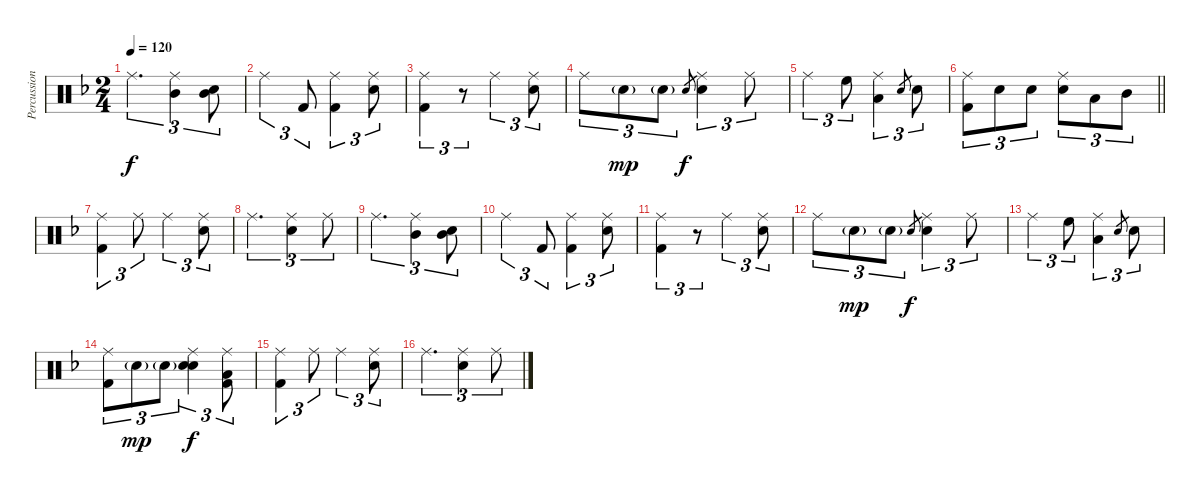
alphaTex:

\track ("Percussion" "Percussion") {instrument percussion}
\staff {score}
\articulation defaults
\ts (2 4)
\tempo 120
\clef neutral
\ks dminor "Ride (middle)".4{d tu (3 2) dy f}
("Ride (middle)" "Mid Tom (hit)").4{tu (3 2)} ("Mid Tom (hit)" "Snare (hit) 2").8{tu (3 2)} |
"Ride (middle)".4{tu (3 2)} "Kick (hit) 2".8{tu (3 2)} ("Ride (middle)" "Kick (hit) 2").4{tu (3 2)} ("Ride (middle)" "Snare (hit) 2").8{tu (3 2)} |
("Ride (middle)" "Kick (hit) 2").4{tu (3 2)} r.8{tu (3 2)} "Ride (middle)".4{tu (3 2)} ("Ride (middle)" "Snare (hit) 2").8{tu (3 2)} |
"Ride (middle)".8{tu (3 2)} "Snare (hit) 2"{g}.8{tu (3 2) dy mp} "Snare (hit) 2"{g}.8{tu (3 2)} "Snare (hit) 2".8{gr dy f} ("Ride (middle)" "Snare (hit) 2").4{tu (3 2)} "Ride (middle)".8{tu (3 2)} |
"Ride (middle)".4{tu (3 2)} "High Floor Tom (hit)".8{tu (3 2)} ("Ride (middle)" "Low Tom (hit)").4{tu (3 2)} "Snare (hit) 2".8{gr} "Snare (hit) 2".8{tu (3 2)} |
\barLineRight lightlight
("Ride (middle)" "Kick (hit) 2").8{tu (3 2)} "Snare (hit) 2".8{tu (3 2)} "Snare (hit) 2".8{tu (3 2)} ("Ride (middle)" "Snare (hit) 2").8{tu (3 2)} "Low Tom (hit)".8{tu (3 2)} "Mid Tom (hit)".8{tu (3 2)} |
("Ride (middle)" "Kick (hit) 2").4{tu (3 2) volume 13} "Ride (middle)".8{tu (3 2)} "Ride (middle)".4{tu (3 2)} ("Ride (middle)" "Snare (hit) 2").8{tu (3 2)} |
"Ride (middle)".4{d tu (3 2)} ("Ride (middle)" "Snare (hit) 2").4{tu (3 2)} "Ride (middle)".8{tu (3 2)} |
"Ride (middle)".4{d tu (3 2)} ("Ride (middle)" "Mid Tom (hit)").4{tu (3 2)} ("Mid Tom (hit)" "Snare (hit) 2").8{tu (3 2)} |
"Ride (middle)".4{tu (3 2)} "Kick (hit) 2".8{tu (3 2)} ("Ride (middle)" "Kick (hit) 2").4{tu (3 2)} ("Ride (middle)" "Snare (hit) 2").8{tu (3 2)} |
("Ride (middle)" "Kick (hit) 2").4{tu (3 2)} r.8{tu (3 2)} "Ride (middle)".4{tu (3 2)} ("Ride (middle)" "Snare (hit) 2").8{tu (3 2)} |
"Ride (middle)".8{tu (3 2)} "Snare (hit) 2"{g}.8{tu (3 2) dy mp} "Snare (hit) 2"{g}.8{tu (3 2)} "Snare (hit) 2".8{gr dy f} ("Ride (middle)" "Snare (hit) 2").4{tu (3 2)} "Ride (middle)".8{tu (3 2)} |
"Ride (middle)".4{tu (3 2)} "High Floor Tom (hit)".8{tu (3 2)} ("Ride (middle)" "Low Tom (hit)").4{tu (3 2)} "Snare (hit) 2".8{gr} "Snare (hit) 2".8{tu (3 2)} |
("Ride (middle)" "Kick (hit) 2").8{tu (3 2)} "Snare (hit) 2"{g}.8{tu (3 2) dy mp} "Snare (hit) 2"{g}.8{tu (3 2)} ("Ride (middle)" "Snare (hit) 2" "Electric Snare (hit)").4{tu (3 2) dy f} ("Ride (middle)" "Low Tom (hit)" "Kick (hit) 2").8{tu (3 2)} |
("Ride (middle)" "Kick (hit) 2").4{tu (3 2)} "Ride (middle)".8{tu (3 2)} "Ride (middle)".4{tu (3 2)} ("Ride (middle)" "Snare (hit) 2").8{tu (3 2)} |
"Ride (middle)".4{d tu (3 2)} ("Ride (middle)" "Snare (hit) 2").4{tu (3 2)} "Ride (middle)".8{tu (3 2)}
